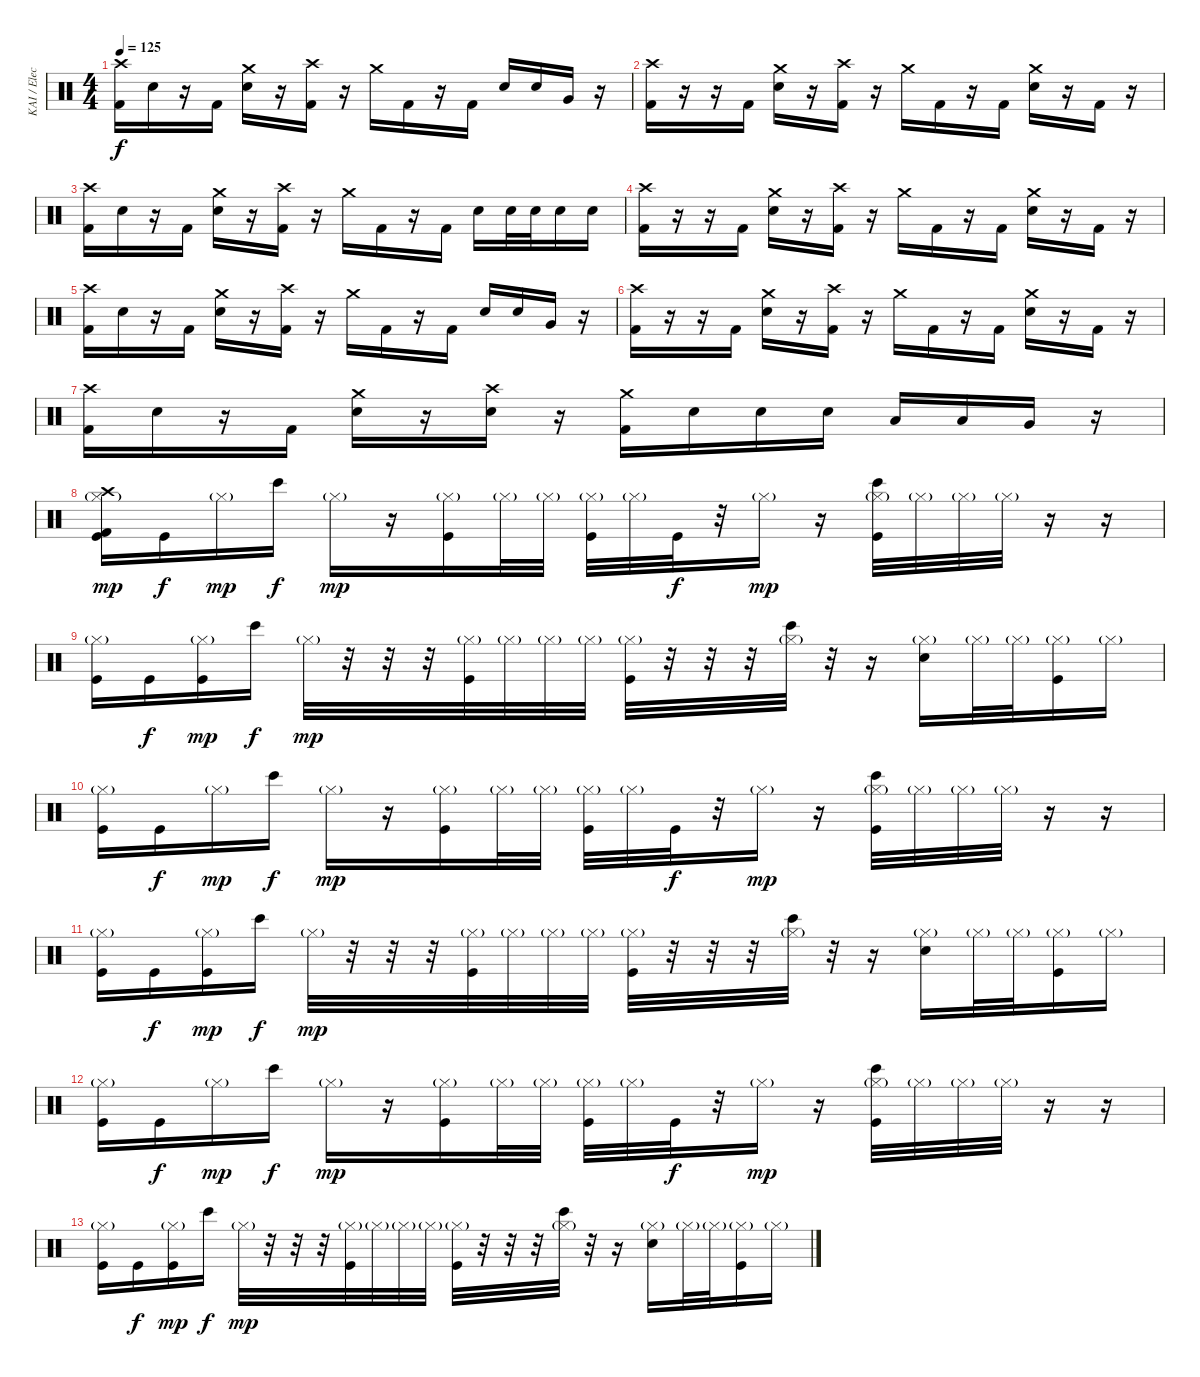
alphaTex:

\track ("KAI / Elect. Drums" "KAI / Elec") {instrument percussion}
\staff {score}
\articulation defaults
\ts (4 4)
\tempo 125
\clef neutral
\ks c
("Crash high (hit)" "Kick (hit) 2").16{dy f} "Electric Snare (hit)".16 r.16 "Kick (hit) 2".16 ("Crash medium (hit)" "Electric Snare (hit)").16 r.16 ("Crash high (hit)" "Kick (hit) 2").16 r.16 "Crash medium (hit)".16 "Kick (hit) 2".16 r.16 "Kick (hit) 2".16 "Electric Snare (hit)".16 "Electric Snare (hit)".16 "Very Low Tom (hit)".16 r.16 |
("Crash high (hit)" "Kick (hit) 2").16 r.16 r.16 "Kick (hit) 2".16 ("Crash medium (hit)" "Electric Snare (hit)").16 r.16 ("Crash high (hit)" "Kick (hit) 2").16 r.16 "Crash medium (hit)".16 "Kick (hit) 2".16 r.16 "Kick (hit) 2".16 ("Crash medium (hit)" "Electric Snare (hit)").16 r.16 "Kick (hit) 2".16 r.16 |
("Crash high (hit)" "Kick (hit) 2").16 "Electric Snare (hit)".16 r.16 "Kick (hit) 2".16 ("Crash medium (hit)" "Electric Snare (hit)").16 r.16 ("Crash high (hit)" "Kick (hit) 2").16 r.16 "Crash medium (hit)".16 "Kick (hit) 2".16 r.16 "Kick (hit) 2".16 "Electric Snare (hit)".16 "Electric Snare (hit)".32 "Electric Snare (hit)".32 "Electric Snare (hit)".16 "Electric Snare (hit)".16 |
("Crash high (hit)" "Kick (hit) 2").16 r.16 r.16 "Kick (hit) 2".16 ("Crash medium (hit)" "Electric Snare (hit)").16 r.16 ("Crash high (hit)" "Kick (hit) 2").16 r.16 "Crash medium (hit)".16 "Kick (hit) 2".16 r.16 "Kick (hit) 2".16 ("Crash medium (hit)" "Electric Snare (hit)").16 r.16 "Kick (hit) 2".16 r.16 |
("Crash high (hit)" "Kick (hit) 2").16 "Electric Snare (hit)".16 r.16 "Kick (hit) 2".16 ("Crash medium (hit)" "Electric Snare (hit)").16 r.16 ("Crash high (hit)" "Kick (hit) 2").16 r.16 "Crash medium (hit)".16 "Kick (hit) 2".16 r.16 "Kick (hit) 2".16 "Electric Snare (hit)".16 "Electric Snare (hit)".16 "Very Low Tom (hit)".16 r.16 |
("Crash high (hit)" "Kick (hit) 2").16 r.16 r.16 "Kick (hit) 2".16 ("Crash medium (hit)" "Electric Snare (hit)").16 r.16 ("Crash high (hit)" "Kick (hit) 2").16 r.16 "Crash medium (hit)".16 "Kick (hit) 2".16 r.16 "Kick (hit) 2".16 ("Crash medium (hit)" "Electric Snare (hit)").16 r.16 "Kick (hit) 2".16 r.16 |
("Crash high (hit)" "Kick (hit) 2").16 "Electric Snare (hit)".16 r.16 "Kick (hit) 2".16 ("Crash medium (hit)" "Electric Snare (hit)").16 r.16 ("Crash high (hit)" "Electric Snare (hit)").16 r.16 ("Crash medium (hit)" "Kick (hit) 2").16 "Electric Snare (hit)".16 "Electric Snare (hit)".16 "Electric Snare (hit)".16 "Low Tom (hit)".16 "Low Tom (hit)".16 "Very Low Tom (hit)".16 r.16 |
("Crash high (hit)" "Hi-Hat (closed)"{g} "Kick (hit) 2" "Kick (hit)").16{dy mp} "Kick (hit)".16{dy f} "Hi-Hat (closed)"{g}.16{dy mp} "Bongo High (hit)".16{dy f} "Hi-Hat (closed)"{g}.16{dy mp} r.16 ("Hi-Hat (closed)"{g} "Kick (hit)").16 "Hi-Hat (closed)"{g}.32 "Hi-Hat (closed)"{g}.32 ("Hi-Hat (closed)"{g} "Kick (hit)").32 "Hi-Hat (closed)"{g}.32 "Kick (hit)".32{dy f} r.32 "Hi-Hat (closed)"{g}.16{dy mp} r.16 ("Bongo High (hit)" "Hi-Hat (closed)"{g} "Kick (hit)").32 "Hi-Hat (closed)"{g}.32 "Hi-Hat (closed)"{g}.32 "Hi-Hat (closed)"{g}.32 r.16 r.16 |
("Hi-Hat (closed)"{g} "Kick (hit)").16 "Kick (hit)".16{dy f} ("Hi-Hat (closed)"{g} "Kick (hit)").16{dy mp} "Bongo High (hit)".16{dy f} "Hi-Hat (closed)"{g}.32{dy mp} r.32 r.32 r.32 ("Hi-Hat (closed)"{g} "Kick (hit)").32 "Hi-Hat (closed)"{g}.32 "Hi-Hat (closed)"{g}.32 "Hi-Hat (closed)"{g}.32 ("Hi-Hat (closed)"{g} "Kick (hit)").32 r.32 r.32 r.32 ("Bongo High (hit)" "Hi-Hat (closed)"{g}).32 r.32 r.16 ("Hand Clap (hit)" "Hi-Hat (closed)"{g}).16 "Hi-Hat (closed)"{g}.32 "Hi-Hat (closed)"{g}.32 ("Hi-Hat (closed)"{g} "Kick (hit)").16 "Hi-Hat (closed)"{g}.16 |
("Hi-Hat (closed)"{g} "Kick (hit)").16 "Kick (hit)".16{dy f} "Hi-Hat (closed)"{g}.16{dy mp} "Bongo High (hit)".16{dy f} "Hi-Hat (closed)"{g}.16{dy mp} r.16 ("Hi-Hat (closed)"{g} "Kick (hit)").16 "Hi-Hat (closed)"{g}.32 "Hi-Hat (closed)"{g}.32 ("Hi-Hat (closed)"{g} "Kick (hit)").32 "Hi-Hat (closed)"{g}.32 "Kick (hit)".32{dy f} r.32 "Hi-Hat (closed)"{g}.16{dy mp} r.16 ("Bongo High (hit)" "Hi-Hat (closed)"{g} "Kick (hit)").32 "Hi-Hat (closed)"{g}.32 "Hi-Hat (closed)"{g}.32 "Hi-Hat (closed)"{g}.32 r.16 r.16 |
("Hi-Hat (closed)"{g} "Kick (hit)").16 "Kick (hit)".16{dy f} ("Hi-Hat (closed)"{g} "Kick (hit)").16{dy mp} "Bongo High (hit)".16{dy f} "Hi-Hat (closed)"{g}.32{dy mp} r.32 r.32 r.32 ("Hi-Hat (closed)"{g} "Kick (hit)").32 "Hi-Hat (closed)"{g}.32 "Hi-Hat (closed)"{g}.32 "Hi-Hat (closed)"{g}.32 ("Hi-Hat (closed)"{g} "Kick (hit)").32 r.32 r.32 r.32 ("Bongo High (hit)" "Hi-Hat (closed)"{g}).32 r.32 r.16 ("Hand Clap (hit)" "Hi-Hat (closed)"{g}).16 "Hi-Hat (closed)"{g}.32 "Hi-Hat (closed)"{g}.32 ("Hi-Hat (closed)"{g} "Kick (hit)").16 "Hi-Hat (closed)"{g}.16 |
("Hi-Hat (closed)"{g} "Kick (hit)").16 "Kick (hit)".16{dy f} "Hi-Hat (closed)"{g}.16{dy mp} "Bongo High (hit)".16{dy f} "Hi-Hat (closed)"{g}.16{dy mp} r.16 ("Hi-Hat (closed)"{g} "Kick (hit)").16 "Hi-Hat (closed)"{g}.32 "Hi-Hat (closed)"{g}.32 ("Hi-Hat (closed)"{g} "Kick (hit)").32 "Hi-Hat (closed)"{g}.32 "Kick (hit)".32{dy f} r.32 "Hi-Hat (closed)"{g}.16{dy mp} r.16 ("Bongo High (hit)" "Hi-Hat (closed)"{g} "Kick (hit)").32 "Hi-Hat (closed)"{g}.32 "Hi-Hat (closed)"{g}.32 "Hi-Hat (closed)"{g}.32 r.16 r.16 |
("Hi-Hat (closed)"{g} "Kick (hit)").16 "Kick (hit)".16{dy f} ("Hi-Hat (closed)"{g} "Kick (hit)").16{dy mp} "Bongo High (hit)".16{dy f} "Hi-Hat (closed)"{g}.32{dy mp} r.32 r.32 r.32 ("Hi-Hat (closed)"{g} "Kick (hit)").32 "Hi-Hat (closed)"{g}.32 "Hi-Hat (closed)"{g}.32 "Hi-Hat (closed)"{g}.32 ("Hi-Hat (closed)"{g} "Kick (hit)").32 r.32 r.32 r.32 ("Bongo High (hit)" "Hi-Hat (closed)"{g}).32 r.32 r.16 ("Hand Clap (hit)" "Hi-Hat (closed)"{g}).16 "Hi-Hat (closed)"{g}.32 "Hi-Hat (closed)"{g}.32 ("Hi-Hat (closed)"{g} "Kick (hit)").16 "Hi-Hat (closed)"{g}.16
